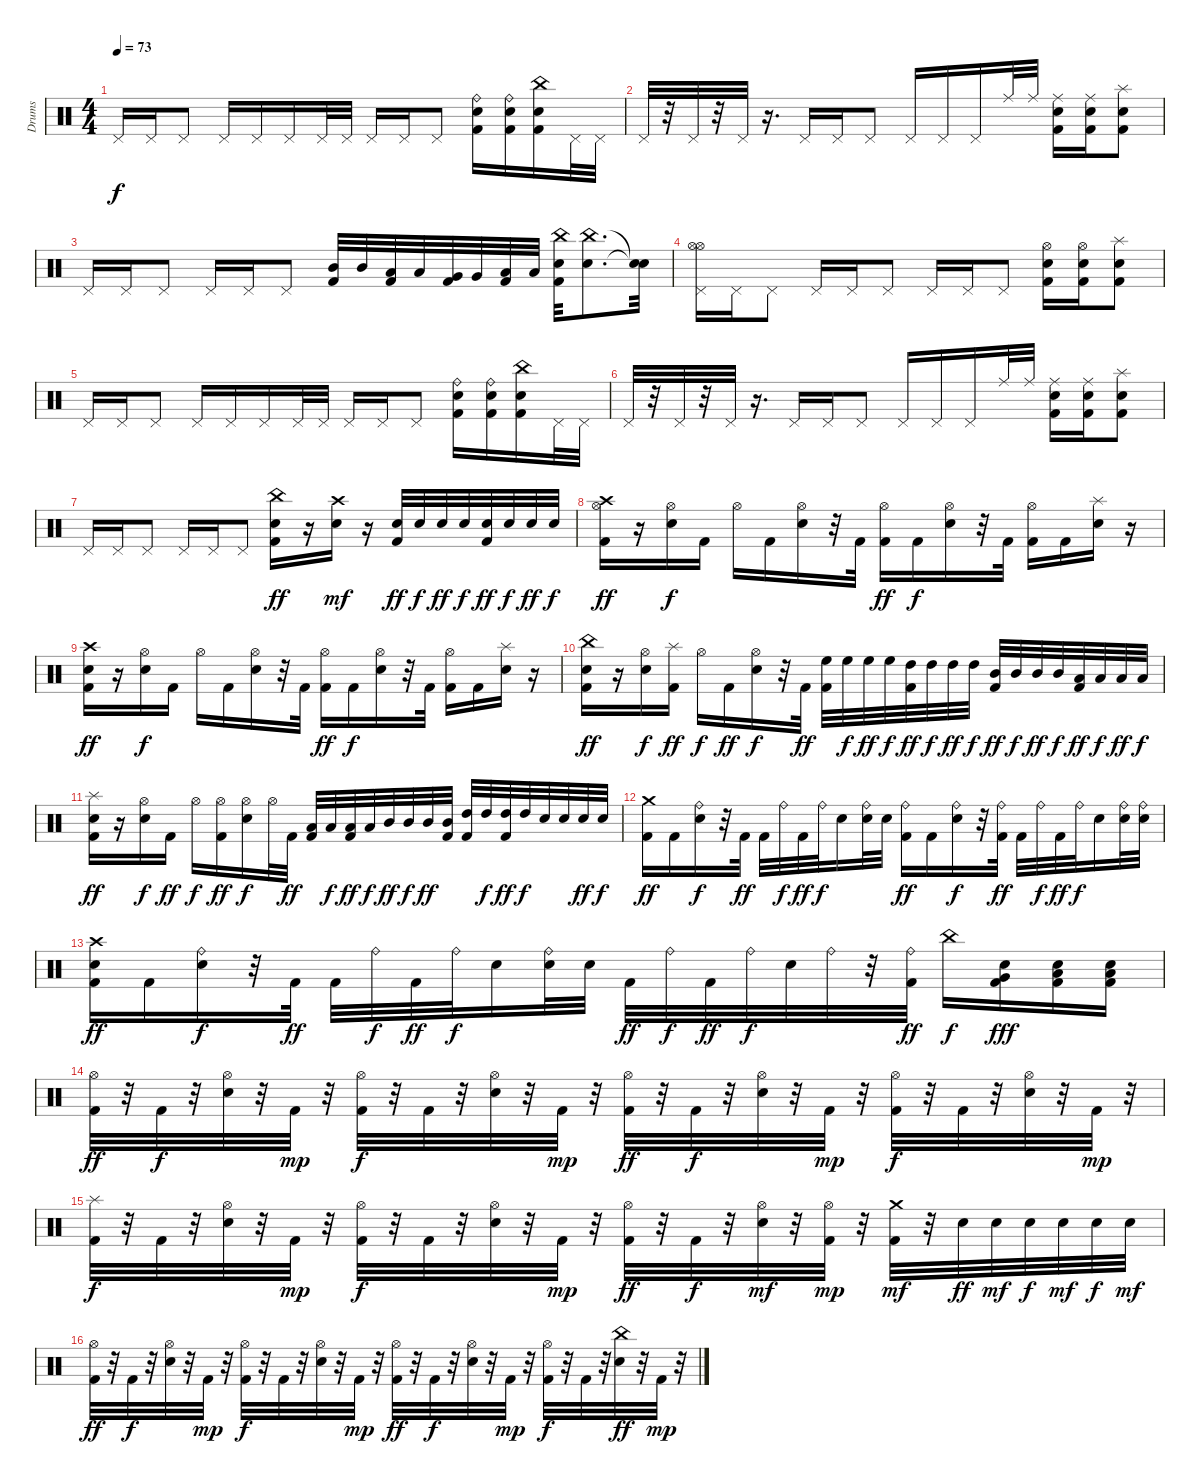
\track ("Drums" "Drums") {instrument percussion}
\staff {score}
\articulation defaults
\ts (4 4)
\tempo 73
\clef neutral
\ks c "Pedal Hi-Hat (hit)".16{dy f} "Pedal Hi-Hat (hit)".16 "Pedal Hi-Hat (hit)".8 "Pedal Hi-Hat (hit)".16 "Pedal Hi-Hat (hit)".16 "Pedal Hi-Hat (hit)".16 "Pedal Hi-Hat (hit)".32 "Pedal Hi-Hat (hit)".32 "Pedal Hi-Hat (hit)".16 "Pedal Hi-Hat (hit)".16 "Pedal Hi-Hat (hit)".8
("Snare (hit) 2" "Kick (hit) 2" "Ride (bell)").16 ("Snare (hit) 2" "Kick (hit) 2" "Ride (bell)").16 ("Snare (hit) 2" "Kick (hit) 2" "China (hit)").16 "Pedal Hi-Hat (hit)".32 "Pedal Hi-Hat (hit)".32 |
"Pedal Hi-Hat (hit)".32 r.32 "Pedal Hi-Hat (hit)".32 r.32 "Pedal Hi-Hat (hit)".32 r.16{d} "Pedal Hi-Hat (hit)".16 "Pedal Hi-Hat (hit)".16 "Pedal Hi-Hat (hit)".8 "Pedal Hi-Hat (hit)".16 "Pedal Hi-Hat (hit)".16 "Pedal Hi-Hat (hit)".16 "Ride (middle)".32 "Ride (middle)".32 ("Snare (hit) 2" "Kick (hit) 2" "Ride (middle)").16 ("Snare (hit) 2" "Kick (hit) 2" "Ride (middle)").16 ("Snare (hit) 2" "Kick (hit) 2" "Splash (hit)").8 |
"Pedal Hi-Hat (hit)".16 "Pedal Hi-Hat (hit)".16 "Pedal Hi-Hat (hit)".8 "Pedal Hi-Hat (hit)".16 "Pedal Hi-Hat (hit)".16 "Pedal Hi-Hat (hit)".8 ("Mid Tom (hit)" "Kick (hit) 2").32 "Mid Tom (hit)".32 ("Low Tom (hit)" "Kick (hit) 2").32 "Low Tom (hit)".32 ("Very Low Tom (hit)" "Kick (hit) 2").32 "Very Low Tom (hit)".32 ("Low Floor Tom (hit)" "Kick (hit) 2").32 "Low Floor Tom (hit)".32 ("Kick (hit) 2" "Snare (hit) 2" "China (hit)").32 ("Snare (hit) 2" "China (hit)").8{d} ("Snare (hit)"{t} "Snare (hit)"{t}).32 |
("Pedal Hi-Hat (hit)" "Hi-Hat (open)" "Hi-Hat (open)").16 "Pedal Hi-Hat (hit)".16 "Pedal Hi-Hat (hit)".8 "Pedal Hi-Hat (hit)".16 "Pedal Hi-Hat (hit)".16 "Pedal Hi-Hat (hit)".8 "Pedal Hi-Hat (hit)".16 "Pedal Hi-Hat (hit)".16 "Pedal Hi-Hat (hit)".8 ("Hi-Hat (open)" "Kick (hit) 2" "Snare (hit) 2").16 ("Hi-Hat (open)" "Kick (hit) 2" "Snare (hit) 2").16 ("Splash (hit)" "Kick (hit) 2" "Snare (hit) 2").8 |
"Pedal Hi-Hat (hit)".16 "Pedal Hi-Hat (hit)".16 "Pedal Hi-Hat (hit)".8 "Pedal Hi-Hat (hit)".16 "Pedal Hi-Hat (hit)".16 "Pedal Hi-Hat (hit)".16 "Pedal Hi-Hat (hit)".32 "Pedal Hi-Hat (hit)".32 "Pedal Hi-Hat (hit)".16 "Pedal Hi-Hat (hit)".16 "Pedal Hi-Hat (hit)".8 ("Ride (bell)" "Kick (hit) 2" "Snare (hit) 2").16 ("Ride (bell)" "Kick (hit) 2" "Snare (hit) 2").16 ("China (hit)" "Kick (hit) 2" "Snare (hit) 2").16 "Pedal Hi-Hat (hit)".32 "Pedal Hi-Hat (hit)".32 |
"Pedal Hi-Hat (hit)".32 r.32 "Pedal Hi-Hat (hit)".32 r.32 "Pedal Hi-Hat (hit)".32 r.16{d} "Pedal Hi-Hat (hit)".16 "Pedal Hi-Hat (hit)".16 "Pedal Hi-Hat (hit)".8 "Pedal Hi-Hat (hit)".16 "Pedal Hi-Hat (hit)".16 "Pedal Hi-Hat (hit)".16 "Ride (middle)".32 "Ride (middle)".32 ("Ride (middle)" "Kick (hit) 2" "Snare (hit) 2").16 ("Ride (middle)" "Kick (hit) 2" "Snare (hit) 2").16 ("Splash (hit)" "Kick (hit) 2" "Snare (hit) 2").8 |
"Pedal Hi-Hat (hit)".16 "Pedal Hi-Hat (hit)".16 "Pedal Hi-Hat (hit)".8 "Pedal Hi-Hat (hit)".16 "Pedal Hi-Hat (hit)".16 "Pedal Hi-Hat (hit)".8 ("Snare (hit) 2" "China (hit)" "Kick (hit) 2").16{dy ff} r.16 ("Snare (hit) 2" "Crash high (hit)").16{dy mf} r.16 ("Snare (hit) 2" "Kick (hit) 2").32{dy ff} "Snare (hit) 2".32{dy f} "Snare (hit) 2".32{dy ff} "Snare (hit) 2".32{dy f} ("Snare (hit) 2" "Kick (hit) 2").32{dy ff} "Snare (hit) 2".32{dy f} "Snare (hit) 2".32{dy ff} "Snare (hit) 2".32{dy f} |
("Hi-Hat (open)" "Kick (hit) 2" "Crash high (hit)").16{dy ff} r.16 ("Hi-Hat (open)" "Snare (hit) 2").16{dy f} "Kick (hit) 2".16 "Hi-Hat (open)".16 "Kick (hit) 2".16 ("Hi-Hat (open)" "Snare (hit) 2").16 r.32 "Kick (hit) 2".32 ("Hi-Hat (open)" "Kick (hit) 2").16{dy ff} "Kick (hit) 2".16{dy f} ("Hi-Hat (open)" "Snare (hit) 2").16 r.32 "Kick (hit) 2".32 ("Hi-Hat (open)" "Kick (hit) 2").16 "Kick (hit) 2".16 ("Snare (hit) 2" "Splash (hit)").16 r.16 |
("Crash high (hit)" "Kick (hit) 2" "Snare (hit) 2").16{dy ff} r.16 ("Hi-Hat (open)" "Snare (hit) 2").16{dy f} "Kick (hit) 2".16 "Hi-Hat (open)".16 "Kick (hit) 2".16 ("Hi-Hat (open)" "Snare (hit) 2").16 r.32 "Kick (hit) 2".32 ("Hi-Hat (open)" "Kick (hit) 2").16{dy ff} "Kick (hit) 2".16{dy f} ("Hi-Hat (open)" "Snare (hit) 2").16 r.32 "Kick (hit) 2".32 ("Hi-Hat (open)" "Kick (hit) 2").16 "Kick (hit) 2".16 ("Splash (hit)" "Snare (hit) 2").16 r.16 |
("China (hit)" "Kick (hit) 2" "Snare (hit) 2").16{dy ff} r.16 ("Hi-Hat (open)" "Snare (hit) 2").16{dy f} ("Splash (hit)" "Kick (hit) 2").16{dy ff} "Hi-Hat (open)".16{dy f} "Kick (hit) 2".16{dy ff} ("Hi-Hat (open)" "Snare (hit) 2").16{dy f} r.32 "Kick (hit) 2".32{dy ff} ("Kick (hit) 2" "High Floor Tom (hit)").32 "High Floor Tom (hit)".32{dy f} "High Floor Tom (hit)".32{dy ff} "High Floor Tom (hit)".32{dy f} ("High Tom (hit)" "Kick (hit) 2").32{dy ff} "High Tom (hit)".32{dy f} "High Tom (hit)".32{dy ff} "High Tom (hit)".32{dy f} ("Kick (hit) 2" "Mid Tom (hit)").32{dy ff} "Mid Tom (hit)".32{dy f} "Mid Tom (hit)".32{dy ff} "Mid Tom (hit)".32{dy f} ("Low Tom (hit)" "Kick (hit) 2").32{dy ff} "Low Tom (hit)".32{dy f} "Low Tom (hit)".32{dy ff} "Low Tom (hit)".32{dy f} |
("Splash (hit)" "Kick (hit) 2" "Snare (hit) 2").16{dy ff} r.16 ("Hi-Hat (open)" "Snare (hit) 2").16{dy f} "Kick (hit) 2".16{dy ff} "Hi-Hat (open)".16{dy f} ("Hi-Hat (open)" "Kick (hit) 2").16{dy ff} ("Hi-Hat (open)" "Snare (hit) 2").16{dy f} "Hi-Hat (open)".32 "Kick (hit) 2".32{dy ff} ("Kick (hit) 2" "Low Tom (hit)").32 "Low Tom (hit)".32{dy f} ("Kick (hit) 2" "Low Tom (hit)").32{dy ff} "Low Tom (hit)".32{dy f} "Mid Tom (hit)".32{dy ff} "Mid Tom (hit)".32{dy f} "Mid Tom (hit)".32{dy ff} ("Kick (hit) 2" "Mid Tom (hit)").32 ("Kick (hit) 2" "High Tom (hit)").32 "High Tom (hit)".32{dy f} ("Kick (hit) 2" "High Tom (hit)").32{dy ff} "High Tom (hit)".32{dy f} "Snare (hit) 2".32 "Snare (hit) 2".32 "Snare (hit) 2".32{dy ff} "Snare (hit) 2".32{dy f} |
("Crash medium (hit)" "Kick (hit) 2").16{dy ff} "Kick (hit) 2".16 ("Ride (bell)" "Snare (hit) 2").16{dy f} r.32 "Kick (hit) 2".32{dy ff} "Kick (hit) 2".32 "Ride (bell)".32{dy f} "Kick (hit) 2".32{dy ff} "Ride (bell)".32{dy f} "Snare (hit) 2".16 ("Ride (bell)" "Snare (hit) 2").32 "Snare (hit) 2".32 ("Ride (bell)" "Kick (hit) 2").16{dy ff} "Kick (hit) 2".16 ("Ride (bell)" "Snare (hit) 2").16{dy f} r.32 ("Ride (bell)" "Kick (hit) 2").32{dy ff} "Kick (hit) 2".32 "Ride (bell)".32{dy f} "Kick (hit) 2".32{dy ff} "Ride (bell)".32{dy f} "Snare (hit) 2".16 ("Electric Snare (hit)" "Ride (bell)").32 ("Electric Snare (hit)" "Ride (bell)").32 |
("Crash high (hit)" "Kick (hit) 2" "Snare (hit) 2").16{dy ff} "Kick (hit) 2".16 ("Snare (hit) 2" "Ride (bell)").16{dy f} r.32 "Kick (hit) 2".32{dy ff} "Kick (hit) 2".32 "Ride (bell)".32{dy f} "Kick (hit) 2".32{dy ff} "Ride (bell)".32{dy f} "Snare (hit) 2".16 ("Ride (bell)" "Snare (hit) 2").32 "Snare (hit) 2".32 "Kick (hit) 2".32{dy ff} "Ride (bell)".32{dy f} "Kick (hit) 2".32{dy ff} "Ride (bell)".32{dy f} "Snare (hit) 2".32 "Ride (bell)".32 r.32 ("Kick (hit) 2" "Ride (bell)").32{dy ff} "China (hit)".16{dy f} ("Very Low Tom (hit)" "Snare (hit) 2" "Kick (hit) 2").16{dy fff} ("Low Floor Tom (hit)" "Snare (hit) 2" "Kick (hit) 2").16 ("Low Floor Tom (hit)" "Snare (hit) 2" "Kick (hit) 2").16 |
("Hi-Hat (open)" "Kick (hit) 2").32{dy ff} r.32 "Kick (hit) 2".32{dy f} r.32 ("Snare (hit) 2" "Hi-Hat (open)").32 r.32 "Kick (hit) 2".32{dy mp} r.32 ("Kick (hit) 2" "Hi-Hat (open)").32{dy f} r.32 "Kick (hit) 2".32 r.32 ("Snare (hit) 2" "Hi-Hat (open)").32 r.32 "Kick (hit) 2".32{dy mp} r.32 ("Kick (hit) 2" "Hi-Hat (open)").32{dy ff} r.32 "Kick (hit) 2".32{dy f} r.32 ("Snare (hit) 2" "Hi-Hat (open)").32 r.32 "Kick (hit) 2".32{dy mp} r.32 ("Kick (hit) 2" "Hi-Hat (open)").32{dy f} r.32 "Kick (hit) 2".32 r.32 ("Snare (hit) 2" "Hi-Hat (open)").32 r.32 "Kick (hit) 2".32{dy mp} r.32 |
("Kick (hit) 2" "Splash (hit)").32{dy f} r.32 "Kick (hit) 2".32 r.32 ("Hi-Hat (open)" "Snare (hit) 2").32 r.32 "Kick (hit) 2".32{dy mp} r.32 ("Hi-Hat (open)" "Kick (hit) 2").32{dy f} r.32 "Kick (hit) 2".32 r.32 ("Hi-Hat (open)" "Snare (hit) 2").32 r.32 "Kick (hit) 2".32{dy mp} r.32 ("Hi-Hat (open)" "Kick (hit) 2").32{dy ff} r.32 "Kick (hit) 2".32{dy f} r.32 ("Hi-Hat (open)" "Snare (hit) 2").32{dy mf} r.32 ("Hi-Hat (open)" "Kick (hit) 2").32{dy mp} r.32 ("Crash medium (hit)" "Kick (hit) 2").32{dy mf} r.32 "Snare (hit) 2".32{dy ff} "Snare (hit) 2".32{dy mf} "Snare (hit) 2".32{dy f} "Snare (hit) 2".32{dy mf} "Snare (hit) 2".32{dy f} "Snare (hit) 2".32{dy mf} |
("Kick (hit) 2" "Hi-Hat (open)").32{dy ff} r.32 "Kick (hit) 2".32{dy f} r.32 ("Hi-Hat (open)" "Snare (hit) 2").32 r.32 "Kick (hit) 2".32{dy mp} r.32 ("Hi-Hat (open)" "Kick (hit) 2").32{dy f} r.32 "Kick (hit) 2".32 r.32 ("Hi-Hat (open)" "Snare (hit) 2").32 r.32 "Kick (hit) 2".32{dy mp} r.32 ("Hi-Hat (open)" "Kick (hit) 2").32{dy ff} r.32 "Kick (hit) 2".32{dy f} r.32 ("Hi-Hat (open)" "Snare (hit) 2").32 r.32 "Kick (hit) 2".32{dy mp} r.32 ("Hi-Hat (open)" "Kick (hit) 2").32{dy f} r.32 "Kick (hit) 2".32 r.32 ("China (hit)" "Snare (hit) 2").32{dy ff} r.32 "Kick (hit) 2".32{dy mp} r.32
